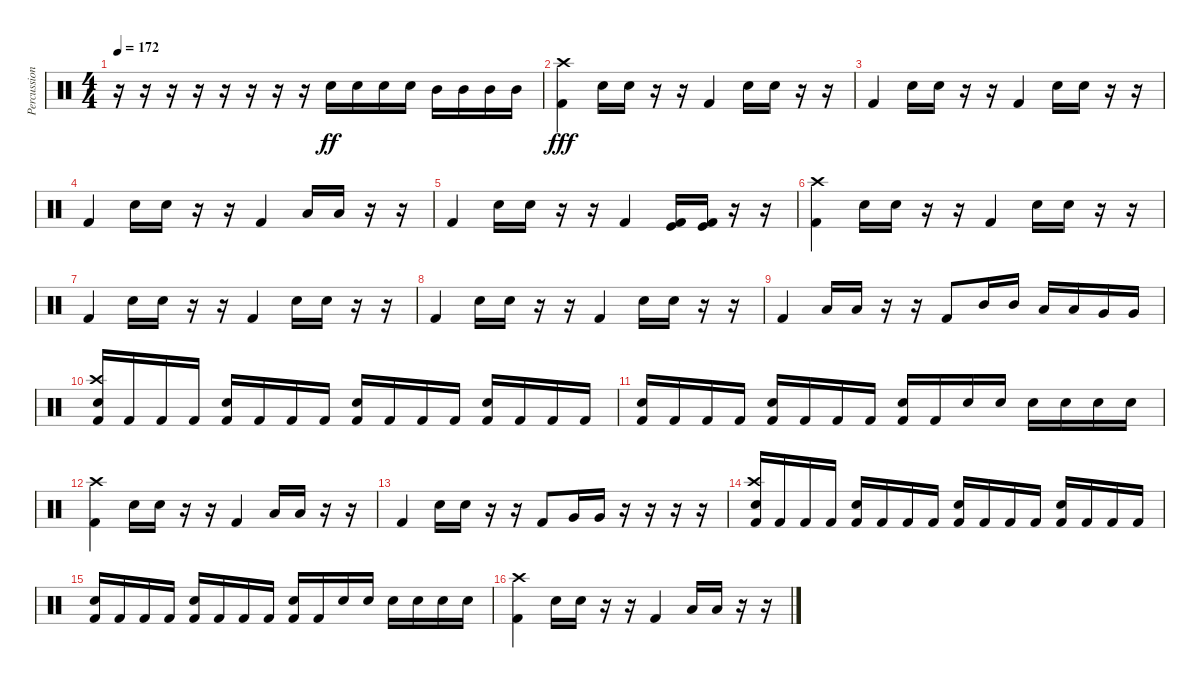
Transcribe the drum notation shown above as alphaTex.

\track ("Percussion" "Percussion") {instrument percussion}
\staff {score}
\articulation defaults
\ts (4 4)
\tempo 172
\clef neutral
\ks c
r.16{dy fff} r.16 r.16 r.16 r.16 r.16 r.16 r.16 "Electric Snare (hit)".16{dy ff} "Electric Snare (hit)".16 "Electric Snare (hit)".16 "Electric Snare (hit)".16 "Mid Tom (hit)".16 "Mid Tom (hit)".16 "Mid Tom (hit)".16 "Mid Tom (hit)".16 |
("Crash high (hit)" "Kick (hit) 2").4{dy fff} "Electric Snare (hit)".16 "Electric Snare (hit)".16 r.16 r.16 "Kick (hit) 2".4 "Electric Snare (hit)".16 "Electric Snare (hit)".16 r.16 r.16 |
"Kick (hit) 2".4 "Electric Snare (hit)".16 "Electric Snare (hit)".16 r.16 r.16 "Kick (hit) 2".4 "Electric Snare (hit)".16 "Electric Snare (hit)".16 r.16 r.16 |
"Kick (hit) 2".4 "Electric Snare (hit)".16 "Electric Snare (hit)".16 r.16 r.16 "Kick (hit) 2".4 "Low Tom (hit)".16 "Low Tom (hit)".16 r.16 r.16 |
"Kick (hit) 2".4 "Electric Snare (hit)".16 "Electric Snare (hit)".16 r.16 r.16 "Kick (hit) 2".4 ("Kick (hit)" "Kick (hit) 2").16 ("Kick (hit)" "Kick (hit) 2").16 r.16 r.16 |
("Crash high (hit)" "Kick (hit) 2").4 "Electric Snare (hit)".16 "Electric Snare (hit)".16 r.16 r.16 "Kick (hit) 2".4 "Electric Snare (hit)".16 "Electric Snare (hit)".16 r.16 r.16 |
"Kick (hit) 2".4 "Electric Snare (hit)".16 "Electric Snare (hit)".16 r.16 r.16 "Kick (hit) 2".4 "Electric Snare (hit)".16 "Electric Snare (hit)".16 r.16 r.16 |
"Kick (hit) 2".4 "Electric Snare (hit)".16 "Electric Snare (hit)".16 r.16 r.16 "Kick (hit) 2".4 "Electric Snare (hit)".16 "Electric Snare (hit)".16 r.16 r.16 |
"Kick (hit) 2".4 "Low Tom (hit)".16 "Low Tom (hit)".16 r.16 r.16 "Kick (hit) 2".8 "Mid Tom (hit)".16 "Mid Tom (hit)".16 "Low Tom (hit)".16 "Low Tom (hit)".16 "Very Low Tom (hit)".16 "Very Low Tom (hit)".16 |
("Crash high (hit)" "Electric Snare (hit)" "Kick (hit) 2").16 "Kick (hit) 2".16 "Kick (hit) 2".16 "Kick (hit) 2".16 ("Electric Snare (hit)" "Kick (hit) 2").16 "Kick (hit) 2".16 "Kick (hit) 2".16 "Kick (hit) 2".16 ("Electric Snare (hit)" "Kick (hit) 2").16 "Kick (hit) 2".16 "Kick (hit) 2".16 "Kick (hit) 2".16 ("Electric Snare (hit)" "Kick (hit) 2").16 "Kick (hit) 2".16 "Kick (hit) 2".16 "Kick (hit) 2".16 |
("Electric Snare (hit)" "Kick (hit) 2").16 "Kick (hit) 2".16 "Kick (hit) 2".16 "Kick (hit) 2".16 ("Electric Snare (hit)" "Kick (hit) 2").16 "Kick (hit) 2".16 "Kick (hit) 2".16 "Kick (hit) 2".16 ("Electric Snare (hit)" "Kick (hit) 2").16 "Kick (hit) 2".16 "Electric Snare (hit)".16 "Electric Snare (hit)".16 "Electric Snare (hit)".16 "Electric Snare (hit)".16 "Electric Snare (hit)".16 "Electric Snare (hit)".16 |
("Crash high (hit)" "Kick (hit) 2").4 "Electric Snare (hit)".16 "Electric Snare (hit)".16 r.16 r.16 "Kick (hit) 2".4 "Low Tom (hit)".16 "Low Tom (hit)".16 r.16 r.16 |
"Kick (hit) 2".4 "Electric Snare (hit)".16 "Electric Snare (hit)".16 r.16 r.16 "Kick (hit) 2".8 "Very Low Tom (hit)".16 "Very Low Tom (hit)".16 r.16 r.16 r.16 r.16 |
("Crash high (hit)" "Electric Snare (hit)" "Kick (hit) 2").16 "Kick (hit) 2".16 "Kick (hit) 2".16 "Kick (hit) 2".16 ("Electric Snare (hit)" "Kick (hit) 2").16 "Kick (hit) 2".16 "Kick (hit) 2".16 "Kick (hit) 2".16 ("Electric Snare (hit)" "Kick (hit) 2").16 "Kick (hit) 2".16 "Kick (hit) 2".16 "Kick (hit) 2".16 ("Electric Snare (hit)" "Kick (hit) 2").16 "Kick (hit) 2".16 "Kick (hit) 2".16 "Kick (hit) 2".16 |
("Electric Snare (hit)" "Kick (hit) 2").16 "Kick (hit) 2".16 "Kick (hit) 2".16 "Kick (hit) 2".16 ("Electric Snare (hit)" "Kick (hit) 2").16 "Kick (hit) 2".16 "Kick (hit) 2".16 "Kick (hit) 2".16 ("Electric Snare (hit)" "Kick (hit) 2").16 "Kick (hit) 2".16 "Electric Snare (hit)".16 "Electric Snare (hit)".16 "Electric Snare (hit)".16 "Electric Snare (hit)".16 "Electric Snare (hit)".16 "Electric Snare (hit)".16 |
("Crash high (hit)" "Kick (hit) 2").4 "Electric Snare (hit)".16 "Electric Snare (hit)".16 r.16 r.16 "Kick (hit) 2".4 "Low Tom (hit)".16 "Low Tom (hit)".16 r.16 r.16
